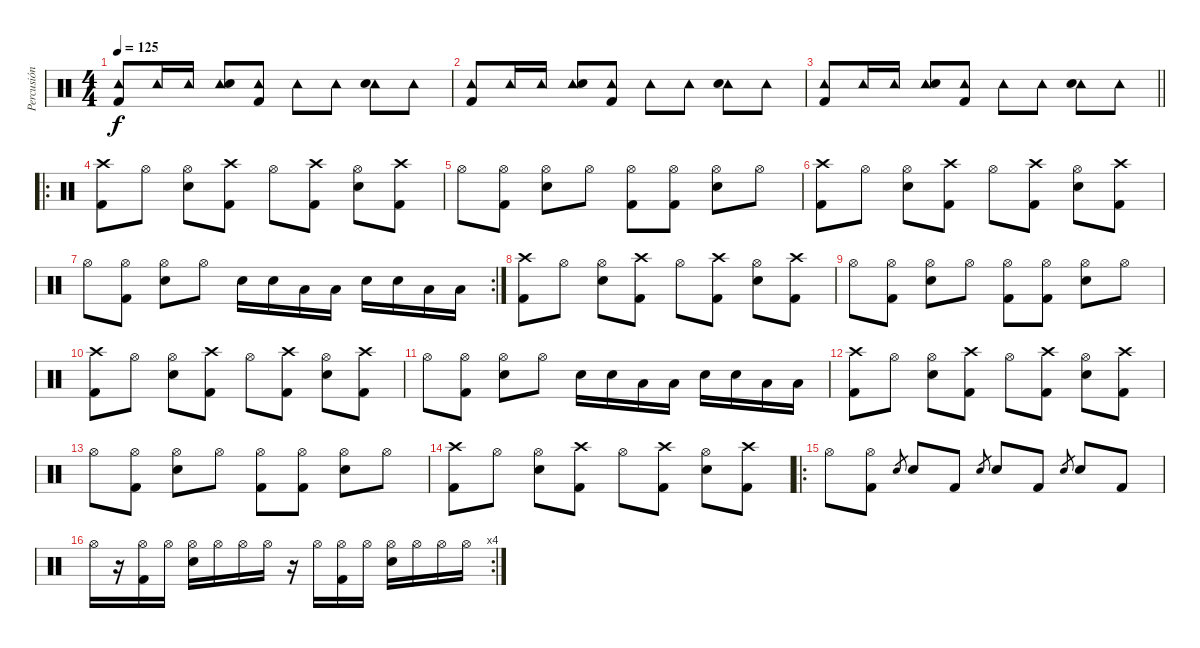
\track ("Percusión" "Percusión") {instrument percussion}
\staff {score}
\articulation defaults
\ts (4 4)
\tempo 125
\clef neutral
\ks c
("Tambourine (hit)" "Kick (hit) 2").8{dy f} "Tambourine (hit)".16 "Tambourine (hit)".16 ("Tambourine (hit)" "Electric Snare (hit)").8 ("Tambourine (hit)" "Kick (hit) 2").8 "Tambourine (hit)".8 "Tambourine (hit)".8 ("Tambourine (hit)" "Electric Snare (hit)").8 "Tambourine (hit)".8 |
("Tambourine (hit)" "Kick (hit) 2").8 "Tambourine (hit)".16 "Tambourine (hit)".16 ("Tambourine (hit)" "Electric Snare (hit)").8 ("Tambourine (hit)" "Kick (hit) 2").8 "Tambourine (hit)".8 "Tambourine (hit)".8 ("Tambourine (hit)" "Electric Snare (hit)").8 "Tambourine (hit)".8 |
\barLineRight lightlight
("Tambourine (hit)" "Kick (hit) 2").8 "Tambourine (hit)".16 "Tambourine (hit)".16 ("Tambourine (hit)" "Electric Snare (hit)").8 ("Tambourine (hit)" "Kick (hit) 2").8 "Tambourine (hit)".8 "Tambourine (hit)".8 ("Tambourine (hit)" "Electric Snare (hit)").8 "Tambourine (hit)".8 |
\ro
("Crash high (hit)" "Kick (hit) 2").8 "Hi-Hat (open)".8 ("Hi-Hat (open)" "Electric Snare (hit)").8 ("Crash high (hit)" "Kick (hit) 2").8 "Hi-Hat (open)".8 ("Crash high (hit)" "Kick (hit) 2").8 ("Hi-Hat (open)" "Electric Snare (hit)").8 ("Crash high (hit)" "Kick (hit) 2").8 |
"Hi-Hat (open)".8 ("Hi-Hat (open)" "Kick (hit) 2").8 ("Hi-Hat (open)" "Electric Snare (hit)").8 "Hi-Hat (open)".8 ("Hi-Hat (open)" "Kick (hit) 2").8 ("Hi-Hat (open)" "Kick (hit) 2").8 ("Hi-Hat (open)" "Electric Snare (hit)").8 "Hi-Hat (open)".8 |
("Crash high (hit)" "Kick (hit) 2").8 "Hi-Hat (open)".8 ("Hi-Hat (open)" "Electric Snare (hit)").8 ("Crash high (hit)" "Kick (hit) 2").8 "Hi-Hat (open)".8 ("Crash high (hit)" "Kick (hit) 2").8 ("Hi-Hat (open)" "Electric Snare (hit)").8 ("Crash high (hit)" "Kick (hit) 2").8 |
\rc 2 "Hi-Hat (open)".8
("Hi-Hat (open)" "Kick (hit) 2").8 ("Hi-Hat (open)" "Electric Snare (hit)").8 "Hi-Hat (open)".8 "Electric Snare (hit)".16 "Electric Snare (hit)".16 "Low Tom (hit)".16 "Low Tom (hit)".16 "Electric Snare (hit)".16 "Electric Snare (hit)".16 "Low Tom (hit)".16 "Low Tom (hit)".16 |
("Crash high (hit)" "Kick (hit) 2").8 "Hi-Hat (open)".8 ("Hi-Hat (open)" "Electric Snare (hit)").8 ("Crash high (hit)" "Kick (hit) 2").8 "Hi-Hat (open)".8 ("Crash high (hit)" "Kick (hit) 2").8 ("Hi-Hat (open)" "Electric Snare (hit)").8 ("Crash high (hit)" "Kick (hit) 2").8 |
"Hi-Hat (open)".8 ("Hi-Hat (open)" "Kick (hit) 2").8 ("Hi-Hat (open)" "Electric Snare (hit)").8 "Hi-Hat (open)".8 ("Hi-Hat (open)" "Kick (hit) 2").8 ("Hi-Hat (open)" "Kick (hit) 2").8 ("Hi-Hat (open)" "Electric Snare (hit)").8 "Hi-Hat (open)".8 |
("Crash high (hit)" "Kick (hit) 2").8 "Hi-Hat (open)".8 ("Hi-Hat (open)" "Electric Snare (hit)").8 ("Crash high (hit)" "Kick (hit) 2").8 "Hi-Hat (open)".8 ("Crash high (hit)" "Kick (hit) 2").8 ("Hi-Hat (open)" "Electric Snare (hit)").8 ("Crash high (hit)" "Kick (hit) 2").8 |
"Hi-Hat (open)".8 ("Hi-Hat (open)" "Kick (hit) 2").8 ("Hi-Hat (open)" "Electric Snare (hit)").8 "Hi-Hat (open)".8 "Electric Snare (hit)".16 "Electric Snare (hit)".16 "Low Tom (hit)".16 "Low Tom (hit)".16 "Electric Snare (hit)".16 "Electric Snare (hit)".16 "Low Tom (hit)".16 "Low Tom (hit)".16 |
("Crash high (hit)" "Kick (hit) 2").8 "Hi-Hat (open)".8 ("Hi-Hat (open)" "Electric Snare (hit)").8 ("Crash high (hit)" "Kick (hit) 2").8 "Hi-Hat (open)".8 ("Crash high (hit)" "Kick (hit) 2").8 ("Hi-Hat (open)" "Electric Snare (hit)").8 ("Crash high (hit)" "Kick (hit) 2").8 |
"Hi-Hat (open)".8 ("Hi-Hat (open)" "Kick (hit) 2").8 ("Hi-Hat (open)" "Electric Snare (hit)").8 "Hi-Hat (open)".8 ("Hi-Hat (open)" "Kick (hit) 2").8 ("Hi-Hat (open)" "Kick (hit) 2").8 ("Hi-Hat (open)" "Electric Snare (hit)").8 "Hi-Hat (open)".8 |
("Crash high (hit)" "Kick (hit) 2").8 "Hi-Hat (open)".8 ("Hi-Hat (open)" "Electric Snare (hit)").8 ("Crash high (hit)" "Kick (hit) 2").8 "Hi-Hat (open)".8 ("Crash high (hit)" "Kick (hit) 2").8 ("Hi-Hat (open)" "Electric Snare (hit)").8 ("Crash high (hit)" "Kick (hit) 2").8 |
\ro "Hi-Hat (open)".8
("Hi-Hat (open)" "Kick (hit) 2").8 "Electric Snare (hit)".8{gr} "Electric Snare (hit)".8 "Kick (hit) 2".8 "Electric Snare (hit)".8{gr} "Electric Snare (hit)".8 "Kick (hit) 2".8 "Electric Snare (hit)".8{gr} "Electric Snare (hit)".8 "Kick (hit) 2".8 |
\rc 4 "Hi-Hat (open)".16
r.16 ("Hi-Hat (open)" "Kick (hit) 2").16 "Hi-Hat (open)".16 ("Hi-Hat (open)" "Electric Snare (hit)").16 "Hi-Hat (open)".16 "Hi-Hat (open)".16 "Hi-Hat (open)".16 r.16 "Hi-Hat (open)".16 ("Hi-Hat (open)" "Kick (hit) 2").16 "Hi-Hat (open)".16 ("Hi-Hat (open)" "Electric Snare (hit)").16 "Hi-Hat (open)".16 "Hi-Hat (open)".16 "Hi-Hat (open)".16
